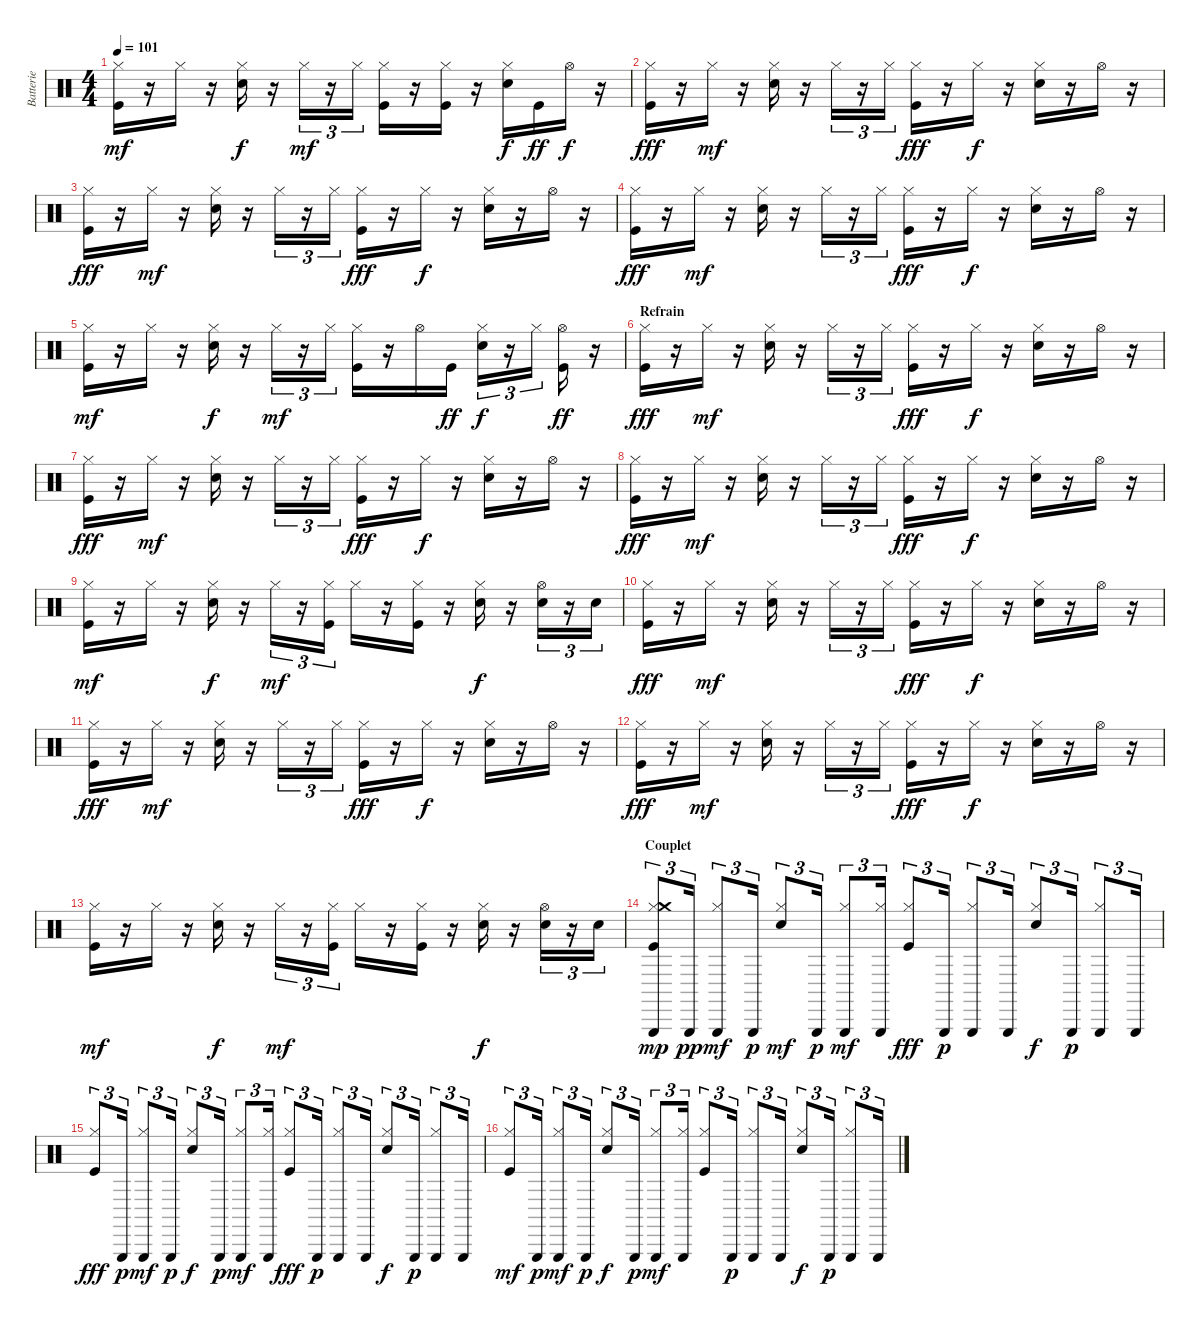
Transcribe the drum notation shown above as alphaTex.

\track ("Batterie" "Batterie") {instrument percussion}
\staff {score}
\articulation defaults
\ts (4 4)
\tempo 101
\clef neutral
\ks c
("Kick (hit)" "Hi-Hat (closed)").16{dy mf} r.16 "Hi-Hat (closed)".16 r.16 ("Electric Snare (hit)" "Hi-Hat (closed)").16{dy f} r.16 "Hi-Hat (closed)".16{tu (3 2) dy mf} r.16{tu (3 2)} "Hi-Hat (closed)".16{tu (3 2)} ("Kick (hit)" "Hi-Hat (closed)").16 r.16 ("Kick (hit)" "Hi-Hat (closed)").16 r.16 ("Electric Snare (hit)" "Hi-Hat (closed)").16{dy f} "Kick (hit)".16{dy ff} "Hi-Hat (open)".16{dy f} r.16 |
("Kick (hit)" "Hi-Hat (closed)").16{dy fff} r.16 "Hi-Hat (closed)".16{dy mf} r.16 ("Electric Snare (hit)" "Hi-Hat (closed)").16 r.16 "Hi-Hat (closed)".16{tu (3 2)} r.16{tu (3 2)} "Hi-Hat (closed)".16{tu (3 2)} ("Kick (hit)" "Hi-Hat (closed)").16{dy fff} r.16 "Hi-Hat (closed)".16{dy f} r.16 ("Electric Snare (hit)" "Hi-Hat (closed)").16 r.16 "Hi-Hat (open)".16 r.16 |
("Kick (hit)" "Hi-Hat (closed)").16{dy fff} r.16 "Hi-Hat (closed)".16{dy mf} r.16 ("Electric Snare (hit)" "Hi-Hat (closed)").16 r.16 "Hi-Hat (closed)".16{tu (3 2)} r.16{tu (3 2)} "Hi-Hat (closed)".16{tu (3 2)} ("Kick (hit)" "Hi-Hat (closed)").16{dy fff} r.16 "Hi-Hat (closed)".16{dy f} r.16 ("Electric Snare (hit)" "Hi-Hat (closed)").16 r.16 "Hi-Hat (open)".16 r.16 |
("Kick (hit)" "Hi-Hat (closed)").16{dy fff} r.16 "Hi-Hat (closed)".16{dy mf} r.16 ("Electric Snare (hit)" "Hi-Hat (closed)").16 r.16 "Hi-Hat (closed)".16{tu (3 2)} r.16{tu (3 2)} "Hi-Hat (closed)".16{tu (3 2)} ("Kick (hit)" "Hi-Hat (closed)").16{dy fff} r.16 "Hi-Hat (closed)".16{dy f} r.16 ("Electric Snare (hit)" "Hi-Hat (closed)").16 r.16 "Hi-Hat (open)".16 r.16 |
("Kick (hit)" "Hi-Hat (closed)").16{dy mf} r.16 "Hi-Hat (closed)".16 r.16 ("Electric Snare (hit)" "Hi-Hat (closed)").16{dy f} r.16 "Hi-Hat (closed)".16{tu (3 2) dy mf} r.16{tu (3 2)} "Hi-Hat (closed)".16{tu (3 2)} ("Kick (hit)" "Hi-Hat (closed)").16 r.16 "Hi-Hat (open)".16 "Kick (hit)".16{dy ff} ("Electric Snare (hit)" "Hi-Hat (closed)").16{tu (3 2) dy f} r.16{tu (3 2)} "Hi-Hat (closed)".16{tu (3 2)} ("Hi-Hat (open)" "Kick (hit)").16{dy ff} r.16 |
\section ("" "Refrain")
("Kick (hit)" "Hi-Hat (closed)").16{dy fff} r.16 "Hi-Hat (closed)".16{dy mf} r.16 ("Electric Snare (hit)" "Hi-Hat (closed)").16 r.16 "Hi-Hat (closed)".16{tu (3 2)} r.16{tu (3 2)} "Hi-Hat (closed)".16{tu (3 2)} ("Kick (hit)" "Hi-Hat (closed)").16{dy fff} r.16 "Hi-Hat (closed)".16{dy f} r.16 ("Electric Snare (hit)" "Hi-Hat (closed)").16 r.16 "Hi-Hat (open)".16 r.16 |
("Kick (hit)" "Hi-Hat (closed)").16{dy fff} r.16 "Hi-Hat (closed)".16{dy mf} r.16 ("Electric Snare (hit)" "Hi-Hat (closed)").16 r.16 "Hi-Hat (closed)".16{tu (3 2)} r.16{tu (3 2)} "Hi-Hat (closed)".16{tu (3 2)} ("Kick (hit)" "Hi-Hat (closed)").16{dy fff} r.16 "Hi-Hat (closed)".16{dy f} r.16 ("Electric Snare (hit)" "Hi-Hat (closed)").16 r.16 "Hi-Hat (open)".16 r.16 |
("Kick (hit)" "Hi-Hat (closed)").16{dy fff} r.16 "Hi-Hat (closed)".16{dy mf} r.16 ("Electric Snare (hit)" "Hi-Hat (closed)").16 r.16 "Hi-Hat (closed)".16{tu (3 2)} r.16{tu (3 2)} "Hi-Hat (closed)".16{tu (3 2)} ("Kick (hit)" "Hi-Hat (closed)").16{dy fff} r.16 "Hi-Hat (closed)".16{dy f} r.16 ("Electric Snare (hit)" "Hi-Hat (closed)").16 r.16 "Hi-Hat (open)".16 r.16 |
("Kick (hit)" "Hi-Hat (closed)").16{dy mf} r.16 "Hi-Hat (closed)".16 r.16 ("Electric Snare (hit)" "Hi-Hat (closed)").16{dy f} r.16 "Hi-Hat (closed)".16{tu (3 2) dy mf} r.16{tu (3 2)} ("Kick (hit)" "Hi-Hat (closed)").16{tu (3 2)} "Hi-Hat (closed)".16 r.16 ("Kick (hit)" "Hi-Hat (closed)").16 r.16 ("Electric Snare (hit)" "Hi-Hat (closed)").16{dy f} r.16 ("Electric Snare (hit)" "Hi-Hat (open)").16{tu (3 2)} r.16{tu (3 2)} "Electric Snare (hit)".16{tu (3 2)} |
("Kick (hit)" "Hi-Hat (closed)").16{dy fff} r.16 "Hi-Hat (closed)".16{dy mf} r.16 ("Electric Snare (hit)" "Hi-Hat (closed)").16 r.16 "Hi-Hat (closed)".16{tu (3 2)} r.16{tu (3 2)} "Hi-Hat (closed)".16{tu (3 2)} ("Kick (hit)" "Hi-Hat (closed)").16{dy fff} r.16 "Hi-Hat (closed)".16{dy f} r.16 ("Electric Snare (hit)" "Hi-Hat (closed)").16 r.16 "Hi-Hat (open)".16 r.16 |
("Kick (hit)" "Hi-Hat (closed)").16{dy fff} r.16 "Hi-Hat (closed)".16{dy mf} r.16 ("Electric Snare (hit)" "Hi-Hat (closed)").16 r.16 "Hi-Hat (closed)".16{tu (3 2)} r.16{tu (3 2)} "Hi-Hat (closed)".16{tu (3 2)} ("Kick (hit)" "Hi-Hat (closed)").16{dy fff} r.16 "Hi-Hat (closed)".16{dy f} r.16 ("Electric Snare (hit)" "Hi-Hat (closed)").16 r.16 "Hi-Hat (open)".16 r.16 |
("Kick (hit)" "Hi-Hat (closed)").16{dy fff} r.16 "Hi-Hat (closed)".16{dy mf} r.16 ("Electric Snare (hit)" "Hi-Hat (closed)").16 r.16 "Hi-Hat (closed)".16{tu (3 2)} r.16{tu (3 2)} "Hi-Hat (closed)".16{tu (3 2)} ("Kick (hit)" "Hi-Hat (closed)").16{dy fff} r.16 "Hi-Hat (closed)".16{dy f} r.16 ("Electric Snare (hit)" "Hi-Hat (closed)").16 r.16 "Hi-Hat (open)".16 r.16 |
("Kick (hit)" "Hi-Hat (closed)").16{dy mf} r.16 "Hi-Hat (closed)".16 r.16 ("Electric Snare (hit)" "Hi-Hat (closed)").16{dy f} r.16 "Hi-Hat (closed)".16{tu (3 2) dy mf} r.16{tu (3 2)} ("Kick (hit)" "Hi-Hat (closed)").16{tu (3 2)} "Hi-Hat (closed)".16 r.16 ("Kick (hit)" "Hi-Hat (closed)").16 r.16 ("Electric Snare (hit)" "Hi-Hat (closed)").16{dy f} r.16 ("Electric Snare (hit)" "Hi-Hat (open)").16{tu (3 2)} r.16{tu (3 2)} "Electric Snare (hit)".16{tu (3 2)} |
\section ("" "Couplet")
("Triangle (hit)" "Kick (hit)" "Hi-Hat (closed)" "Crash medium (hit)").8{tu (3 2) dy mp} "Triangle (hit)".16{tu (3 2) dy pp} ("Triangle (hit)" "Hi-Hat (closed)").8{tu (3 2) dy mf} "Triangle (hit)".16{tu (3 2) dy p} ("Electric Snare (hit)" "Hi-Hat (closed)").8{tu (3 2) dy mf} "Triangle (hit)".16{tu (3 2) dy p} ("Triangle (hit)" "Hi-Hat (closed)").8{tu (3 2) dy mf} ("Triangle (hit)" "Hi-Hat (closed)").16{tu (3 2)} ("Kick (hit)" "Hi-Hat (closed)").8{tu (3 2) dy fff} "Triangle (hit)".16{tu (3 2) dy p} ("Triangle (hit)" "Hi-Hat (closed)").8{tu (3 2)} "Triangle (hit)".16{tu (3 2)} ("Electric Snare (hit)" "Hi-Hat (closed)").8{tu (3 2) dy f} "Triangle (hit)".16{tu (3 2) dy p} ("Triangle (hit)" "Hi-Hat (closed)").8{tu (3 2)} "Triangle (hit)".16{tu (3 2)} |
("Kick (hit)" "Hi-Hat (closed)").8{tu (3 2) dy fff} "Triangle (hit)".16{tu (3 2) dy p} ("Triangle (hit)" "Hi-Hat (closed)").8{tu (3 2) dy mf} "Triangle (hit)".16{tu (3 2) dy p} ("Electric Snare (hit)" "Hi-Hat (closed)").8{tu (3 2) dy f} "Triangle (hit)".16{tu (3 2) dy p} ("Triangle (hit)" "Hi-Hat (closed)").8{tu (3 2) dy mf} ("Triangle (hit)" "Hi-Hat (closed)").16{tu (3 2)} ("Kick (hit)" "Hi-Hat (closed)").8{tu (3 2) dy fff} "Triangle (hit)".16{tu (3 2) dy p} ("Triangle (hit)" "Hi-Hat (closed)").8{tu (3 2)} "Triangle (hit)".16{tu (3 2)} ("Electric Snare (hit)" "Hi-Hat (closed)").8{tu (3 2) dy f} "Triangle (hit)".16{tu (3 2) dy p} ("Triangle (hit)" "Hi-Hat (closed)").8{tu (3 2)} "Triangle (hit)".16{tu (3 2)} |
("Kick (hit)" "Hi-Hat (closed)").8{tu (3 2) dy mf} "Triangle (hit)".16{tu (3 2) dy p} ("Triangle (hit)" "Hi-Hat (closed)").8{tu (3 2) dy mf} "Triangle (hit)".16{tu (3 2) dy p} ("Electric Snare (hit)" "Hi-Hat (closed)").8{tu (3 2) dy f} "Triangle (hit)".16{tu (3 2) dy p} ("Triangle (hit)" "Hi-Hat (closed)").8{tu (3 2) dy mf} ("Triangle (hit)" "Hi-Hat (closed)").16{tu (3 2)} ("Kick (hit)" "Hi-Hat (closed)").8{tu (3 2)} "Triangle (hit)".16{tu (3 2) dy p} ("Triangle (hit)" "Hi-Hat (closed)").8{tu (3 2)} "Triangle (hit)".16{tu (3 2)} ("Electric Snare (hit)" "Hi-Hat (closed)").8{tu (3 2) dy f} "Triangle (hit)".16{tu (3 2) dy p} ("Triangle (hit)" "Hi-Hat (closed)").8{tu (3 2)} "Triangle (hit)".16{tu (3 2)}
